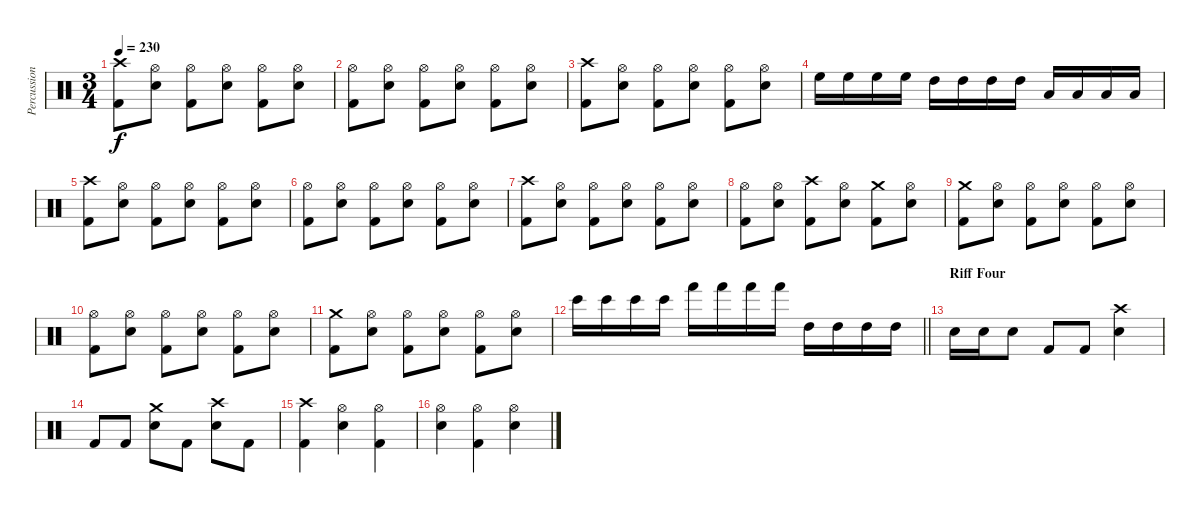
\track ("Percussion" "Percussion") {instrument percussion}
\staff {score}
\articulation defaults
\ts (3 4)
\tempo 230
\clef neutral
\ks c
("Crash high (hit)" "Kick (hit) 2").8{dy f} ("Hi-Hat (open)" "Electric Snare (hit)").8 ("Hi-Hat (open)" "Kick (hit) 2").8 ("Hi-Hat (open)" "Electric Snare (hit)").8 ("Hi-Hat (open)" "Kick (hit) 2").8 ("Hi-Hat (open)" "Electric Snare (hit)").8 |
("Hi-Hat (open)" "Kick (hit) 2").8 ("Hi-Hat (open)" "Electric Snare (hit)").8 ("Hi-Hat (open)" "Kick (hit) 2").8 ("Hi-Hat (open)" "Electric Snare (hit)").8 ("Hi-Hat (open)" "Kick (hit) 2").8 ("Hi-Hat (open)" "Electric Snare (hit)").8 |
("Crash high (hit)" "Kick (hit) 2").8 ("Hi-Hat (open)" "Electric Snare (hit)").8 ("Hi-Hat (open)" "Kick (hit) 2").8 ("Hi-Hat (open)" "Electric Snare (hit)").8 ("Hi-Hat (open)" "Kick (hit) 2").8 ("Hi-Hat (open)" "Electric Snare (hit)").8 |
"High Floor Tom (hit)".16 "High Floor Tom (hit)".16 "High Floor Tom (hit)".16 "High Floor Tom (hit)".16 "High Tom (hit)".16 "High Tom (hit)".16 "High Tom (hit)".16 "High Tom (hit)".16 "Low Tom (hit)".16 "Low Tom (hit)".16 "Low Tom (hit)".16 "Low Tom (hit)".16 |
("Crash high (hit)" "Kick (hit) 2").8 ("Hi-Hat (open)" "Electric Snare (hit)").8 ("Hi-Hat (open)" "Kick (hit) 2").8 ("Hi-Hat (open)" "Electric Snare (hit)").8 ("Hi-Hat (open)" "Kick (hit) 2").8 ("Hi-Hat (open)" "Electric Snare (hit)").8 |
("Hi-Hat (open)" "Kick (hit) 2").8 ("Hi-Hat (open)" "Electric Snare (hit)").8 ("Hi-Hat (open)" "Kick (hit) 2").8 ("Hi-Hat (open)" "Electric Snare (hit)").8 ("Hi-Hat (open)" "Kick (hit) 2").8 ("Hi-Hat (open)" "Electric Snare (hit)").8 |
("Crash high (hit)" "Kick (hit) 2").8 ("Hi-Hat (open)" "Electric Snare (hit)").8 ("Hi-Hat (open)" "Kick (hit) 2").8 ("Hi-Hat (open)" "Electric Snare (hit)").8 ("Hi-Hat (open)" "Kick (hit) 2").8 ("Hi-Hat (open)" "Electric Snare (hit)").8 |
("Hi-Hat (open)" "Kick (hit) 2").8 ("Hi-Hat (open)" "Electric Snare (hit)").8 ("Crash high (hit)" "Kick (hit) 2").8 ("Hi-Hat (open)" "Electric Snare (hit)").8 ("Crash medium (hit)" "Kick (hit) 2").8 ("Hi-Hat (open)" "Electric Snare (hit)").8 |
("Crash medium (hit)" "Kick (hit) 2").8 ("Hi-Hat (open)" "Electric Snare (hit)").8 ("Hi-Hat (open)" "Kick (hit) 2").8 ("Hi-Hat (open)" "Electric Snare (hit)").8 ("Hi-Hat (open)" "Kick (hit) 2").8 ("Hi-Hat (open)" "Electric Snare (hit)").8 |
("Hi-Hat (open)" "Kick (hit) 2").8 ("Hi-Hat (open)" "Electric Snare (hit)").8 ("Hi-Hat (open)" "Kick (hit) 2").8 ("Hi-Hat (open)" "Electric Snare (hit)").8 ("Hi-Hat (open)" "Kick (hit) 2").8 ("Hi-Hat (open)" "Electric Snare (hit)").8 |
("Crash medium (hit)" "Kick (hit) 2").8 ("Hi-Hat (open)" "Electric Snare (hit)").8 ("Hi-Hat (open)" "Kick (hit) 2").8 ("Hi-Hat (open)" "Electric Snare (hit)").8 ("Hi-Hat (open)" "Kick (hit) 2").8 ("Hi-Hat (open)" "Electric Snare (hit)").8 |
\barLineRight lightlight "Bongo High (hit)".16 "Bongo High (hit)".16 "Bongo High (hit)".16 "Bongo High (hit)".16 "Hand (hit)".16 "Hand (hit)".16 "Hand (hit)".16 "Hand (hit)".16 "High Tom (hit)".16 "High Tom (hit)".16 "High Tom (hit)".16 "High Tom (hit)".16
|
\section ("" "Riff Four")
"Electric Snare (hit)".16 "Electric Snare (hit)".16 "Electric Snare (hit)".8 "Kick (hit) 2".8 "Kick (hit) 2".8 ("Crash high (hit)" "Electric Snare (hit)").4 |
"Kick (hit) 2".8 "Kick (hit) 2".8 ("Crash medium (hit)" "Electric Snare (hit)").8 "Kick (hit) 2".8 ("Crash high (hit)" "Electric Snare (hit)").8 "Kick (hit) 2".8 |
("Crash high (hit)" "Kick (hit) 2").4 ("Hi-Hat (open)" "Electric Snare (hit)").4 ("Hi-Hat (open)" "Kick (hit) 2").4 |
("Hi-Hat (open)" "Electric Snare (hit)").4 ("Hi-Hat (open)" "Kick (hit) 2").4 ("Hi-Hat (open)" "Electric Snare (hit)").4
